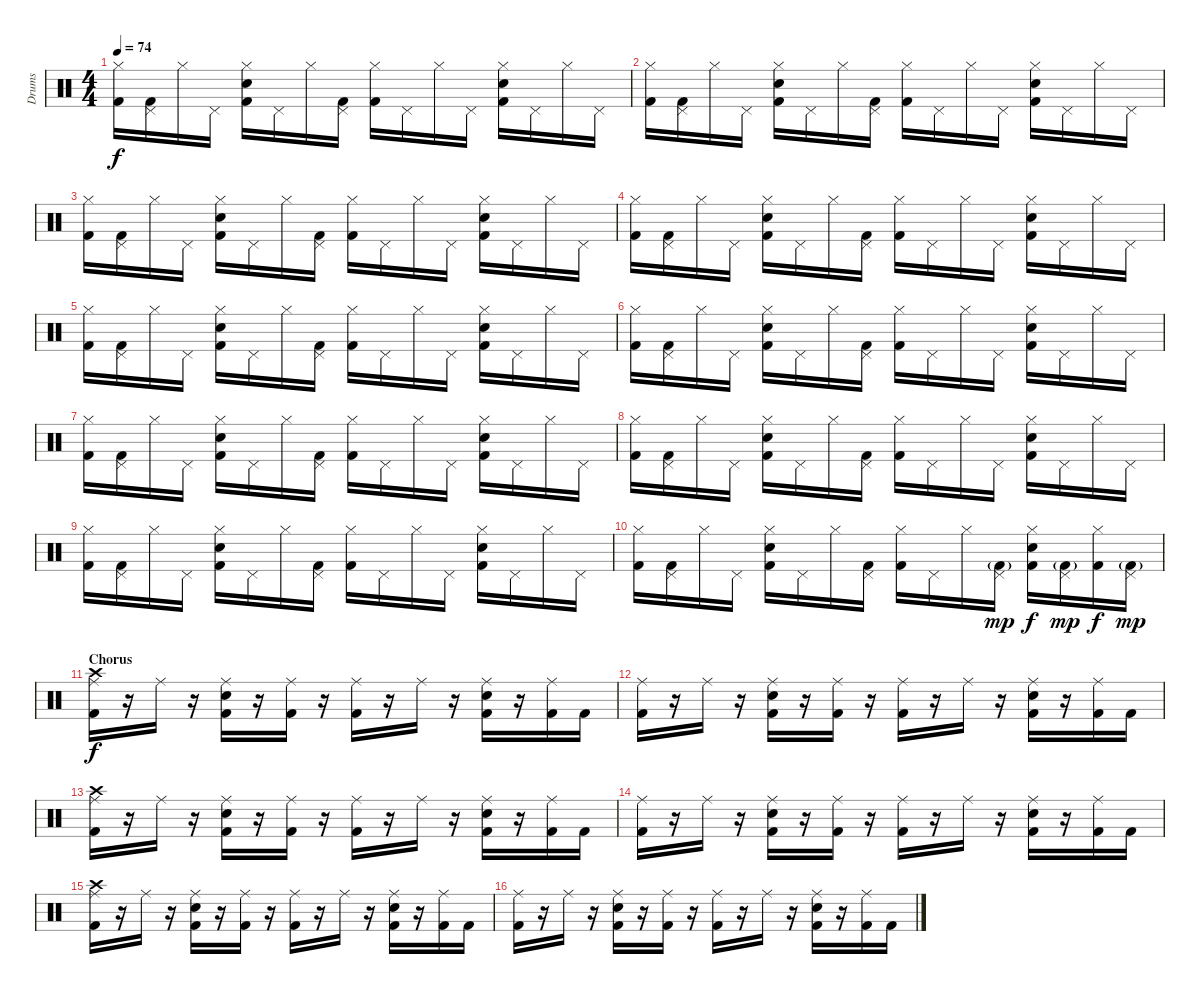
\track ("Drums" "Drums") {instrument percussion}
\staff {score}
\articulation defaults
\ts (4 4)
\tempo 74
\clef neutral
\ks c
("Hi-Hat (closed)" "Kick (hit) 2").16{dy f} ("Pedal Hi-Hat (hit)" "Kick (hit) 2").16 "Hi-Hat (closed)".16 "Pedal Hi-Hat (hit)".16 ("Hi-Hat (closed)" "Kick (hit) 2" "Snare (hit) 2").16 "Pedal Hi-Hat (hit)".16 "Hi-Hat (closed)".16 ("Pedal Hi-Hat (hit)" "Kick (hit) 2").16 ("Hi-Hat (closed)" "Kick (hit) 2").16 "Pedal Hi-Hat (hit)".16 "Hi-Hat (closed)".16 "Pedal Hi-Hat (hit)".16 ("Hi-Hat (closed)" "Kick (hit) 2" "Snare (hit) 2").16 "Pedal Hi-Hat (hit)".16 "Hi-Hat (closed)".16 "Pedal Hi-Hat (hit)".16 |
("Hi-Hat (closed)" "Kick (hit) 2").16 ("Pedal Hi-Hat (hit)" "Kick (hit) 2").16 "Hi-Hat (closed)".16 "Pedal Hi-Hat (hit)".16 ("Hi-Hat (closed)" "Kick (hit) 2" "Snare (hit) 2").16 "Pedal Hi-Hat (hit)".16 "Hi-Hat (closed)".16 ("Pedal Hi-Hat (hit)" "Kick (hit) 2").16 ("Hi-Hat (closed)" "Kick (hit) 2").16 "Pedal Hi-Hat (hit)".16 "Hi-Hat (closed)".16 "Pedal Hi-Hat (hit)".16 ("Hi-Hat (closed)" "Kick (hit) 2" "Snare (hit) 2").16 "Pedal Hi-Hat (hit)".16 "Hi-Hat (closed)".16 "Pedal Hi-Hat (hit)".16 |
("Hi-Hat (closed)" "Kick (hit) 2").16 ("Pedal Hi-Hat (hit)" "Kick (hit) 2").16 "Hi-Hat (closed)".16 "Pedal Hi-Hat (hit)".16 ("Hi-Hat (closed)" "Kick (hit) 2" "Snare (hit) 2").16 "Pedal Hi-Hat (hit)".16 "Hi-Hat (closed)".16 ("Pedal Hi-Hat (hit)" "Kick (hit) 2").16 ("Hi-Hat (closed)" "Kick (hit) 2").16 "Pedal Hi-Hat (hit)".16 "Hi-Hat (closed)".16 "Pedal Hi-Hat (hit)".16 ("Hi-Hat (closed)" "Kick (hit) 2" "Snare (hit) 2").16 "Pedal Hi-Hat (hit)".16 "Hi-Hat (closed)".16 "Pedal Hi-Hat (hit)".16 |
("Hi-Hat (closed)" "Kick (hit) 2").16 ("Pedal Hi-Hat (hit)" "Kick (hit) 2").16 "Hi-Hat (closed)".16 "Pedal Hi-Hat (hit)".16 ("Hi-Hat (closed)" "Kick (hit) 2" "Snare (hit) 2").16 "Pedal Hi-Hat (hit)".16 "Hi-Hat (closed)".16 ("Pedal Hi-Hat (hit)" "Kick (hit) 2").16 ("Hi-Hat (closed)" "Kick (hit) 2").16 "Pedal Hi-Hat (hit)".16 "Hi-Hat (closed)".16 "Pedal Hi-Hat (hit)".16 ("Hi-Hat (closed)" "Kick (hit) 2" "Snare (hit) 2").16 "Pedal Hi-Hat (hit)".16 "Hi-Hat (closed)".16 "Pedal Hi-Hat (hit)".16 |
("Hi-Hat (closed)" "Kick (hit) 2").16 ("Pedal Hi-Hat (hit)" "Kick (hit) 2").16 "Hi-Hat (closed)".16 "Pedal Hi-Hat (hit)".16 ("Hi-Hat (closed)" "Kick (hit) 2" "Snare (hit) 2").16 "Pedal Hi-Hat (hit)".16 "Hi-Hat (closed)".16 ("Pedal Hi-Hat (hit)" "Kick (hit) 2").16 ("Hi-Hat (closed)" "Kick (hit) 2").16 "Pedal Hi-Hat (hit)".16 "Hi-Hat (closed)".16 "Pedal Hi-Hat (hit)".16 ("Hi-Hat (closed)" "Kick (hit) 2" "Snare (hit) 2").16 "Pedal Hi-Hat (hit)".16 "Hi-Hat (closed)".16 "Pedal Hi-Hat (hit)".16 |
("Hi-Hat (closed)" "Kick (hit) 2").16 ("Pedal Hi-Hat (hit)" "Kick (hit) 2").16 "Hi-Hat (closed)".16 "Pedal Hi-Hat (hit)".16 ("Hi-Hat (closed)" "Kick (hit) 2" "Snare (hit) 2").16 "Pedal Hi-Hat (hit)".16 "Hi-Hat (closed)".16 ("Pedal Hi-Hat (hit)" "Kick (hit) 2").16 ("Hi-Hat (closed)" "Kick (hit) 2").16 "Pedal Hi-Hat (hit)".16 "Hi-Hat (closed)".16 "Pedal Hi-Hat (hit)".16 ("Hi-Hat (closed)" "Kick (hit) 2" "Snare (hit) 2").16 "Pedal Hi-Hat (hit)".16 "Hi-Hat (closed)".16 "Pedal Hi-Hat (hit)".16 |
("Hi-Hat (closed)" "Kick (hit) 2").16 ("Pedal Hi-Hat (hit)" "Kick (hit) 2").16 "Hi-Hat (closed)".16 "Pedal Hi-Hat (hit)".16 ("Hi-Hat (closed)" "Kick (hit) 2" "Snare (hit) 2").16 "Pedal Hi-Hat (hit)".16 "Hi-Hat (closed)".16 ("Pedal Hi-Hat (hit)" "Kick (hit) 2").16 ("Hi-Hat (closed)" "Kick (hit) 2").16 "Pedal Hi-Hat (hit)".16 "Hi-Hat (closed)".16 "Pedal Hi-Hat (hit)".16 ("Hi-Hat (closed)" "Kick (hit) 2" "Snare (hit) 2").16 "Pedal Hi-Hat (hit)".16 "Hi-Hat (closed)".16 "Pedal Hi-Hat (hit)".16 |
("Hi-Hat (closed)" "Kick (hit) 2").16 ("Pedal Hi-Hat (hit)" "Kick (hit) 2").16 "Hi-Hat (closed)".16 "Pedal Hi-Hat (hit)".16 ("Hi-Hat (closed)" "Kick (hit) 2" "Snare (hit) 2").16 "Pedal Hi-Hat (hit)".16 "Hi-Hat (closed)".16 ("Pedal Hi-Hat (hit)" "Kick (hit) 2").16 ("Hi-Hat (closed)" "Kick (hit) 2").16 "Pedal Hi-Hat (hit)".16 "Hi-Hat (closed)".16 "Pedal Hi-Hat (hit)".16 ("Hi-Hat (closed)" "Kick (hit) 2" "Snare (hit) 2").16 "Pedal Hi-Hat (hit)".16 "Hi-Hat (closed)".16 "Pedal Hi-Hat (hit)".16 |
("Hi-Hat (closed)" "Kick (hit) 2").16 ("Pedal Hi-Hat (hit)" "Kick (hit) 2").16 "Hi-Hat (closed)".16 "Pedal Hi-Hat (hit)".16 ("Hi-Hat (closed)" "Kick (hit) 2" "Snare (hit) 2").16 "Pedal Hi-Hat (hit)".16 "Hi-Hat (closed)".16 ("Pedal Hi-Hat (hit)" "Kick (hit) 2").16 ("Hi-Hat (closed)" "Kick (hit) 2").16 "Pedal Hi-Hat (hit)".16 "Hi-Hat (closed)".16 "Pedal Hi-Hat (hit)".16 ("Hi-Hat (closed)" "Kick (hit) 2" "Snare (hit) 2").16 "Pedal Hi-Hat (hit)".16 "Hi-Hat (closed)".16 "Pedal Hi-Hat (hit)".16 |
("Hi-Hat (closed)" "Kick (hit) 2").16 ("Pedal Hi-Hat (hit)" "Kick (hit) 2").16 "Hi-Hat (closed)".16 "Pedal Hi-Hat (hit)".16 ("Hi-Hat (closed)" "Kick (hit) 2" "Snare (hit) 2").16 "Pedal Hi-Hat (hit)".16 "Hi-Hat (closed)".16 ("Pedal Hi-Hat (hit)" "Kick (hit) 2").16 ("Hi-Hat (closed)" "Kick (hit) 2").16 "Pedal Hi-Hat (hit)".16 "Hi-Hat (closed)".16 ("Pedal Hi-Hat (hit)" "Kick (hit) 2"{g}).16{dy mp} ("Hi-Hat (closed)" "Kick (hit) 2" "Snare (hit) 2").16{dy f} ("Pedal Hi-Hat (hit)" "Kick (hit) 2"{g}).16{dy mp} ("Hi-Hat (closed)" "Kick (hit) 2").16{dy f} ("Pedal Hi-Hat (hit)" "Kick (hit) 2"{g}).16{dy mp} |
\section ("" "Chorus")
("Crash high (hit)" "Ride (middle)" "Kick (hit) 2").16{dy f} r.16 "Ride (middle)".16 r.16 ("Ride (middle)" "Kick (hit) 2" "Snare (hit) 2").16 r.16 ("Ride (middle)" "Kick (hit) 2").16 r.16 ("Ride (middle)" "Kick (hit) 2").16 r.16 "Ride (middle)".16 r.16 ("Ride (middle)" "Kick (hit) 2" "Snare (hit) 2").16 r.16 ("Ride (middle)" "Kick (hit) 2").16 "Kick (hit) 2".16 |
("Ride (middle)" "Kick (hit) 2").16 r.16 "Ride (middle)".16 r.16 ("Ride (middle)" "Kick (hit) 2" "Snare (hit) 2").16 r.16 ("Ride (middle)" "Kick (hit) 2").16 r.16 ("Ride (middle)" "Kick (hit) 2").16 r.16 "Ride (middle)".16 r.16 ("Ride (middle)" "Kick (hit) 2" "Snare (hit) 2").16 r.16 ("Ride (middle)" "Kick (hit) 2").16 "Kick (hit) 2".16 |
("Crash high (hit)" "Ride (middle)" "Kick (hit) 2").16 r.16 "Ride (middle)".16 r.16 ("Ride (middle)" "Kick (hit) 2" "Snare (hit) 2").16 r.16 ("Ride (middle)" "Kick (hit) 2").16 r.16 ("Ride (middle)" "Kick (hit) 2").16 r.16 "Ride (middle)".16 r.16 ("Ride (middle)" "Kick (hit) 2" "Snare (hit) 2").16 r.16 ("Ride (middle)" "Kick (hit) 2").16 "Kick (hit) 2".16 |
("Ride (middle)" "Kick (hit) 2").16 r.16 "Ride (middle)".16 r.16 ("Ride (middle)" "Kick (hit) 2" "Snare (hit) 2").16 r.16 ("Ride (middle)" "Kick (hit) 2").16 r.16 ("Ride (middle)" "Kick (hit) 2").16 r.16 "Ride (middle)".16 r.16 ("Ride (middle)" "Kick (hit) 2" "Snare (hit) 2").16 r.16 ("Ride (middle)" "Kick (hit) 2").16 "Kick (hit) 2".16 |
("Crash high (hit)" "Ride (middle)" "Kick (hit) 2").16 r.16 "Ride (middle)".16 r.16 ("Ride (middle)" "Kick (hit) 2" "Snare (hit) 2").16 r.16 ("Ride (middle)" "Kick (hit) 2").16 r.16 ("Ride (middle)" "Kick (hit) 2").16 r.16 "Ride (middle)".16 r.16 ("Ride (middle)" "Kick (hit) 2" "Snare (hit) 2").16 r.16 ("Ride (middle)" "Kick (hit) 2").16 "Kick (hit) 2".16 |
("Ride (middle)" "Kick (hit) 2").16 r.16 "Ride (middle)".16 r.16 ("Ride (middle)" "Kick (hit) 2" "Snare (hit) 2").16 r.16 ("Ride (middle)" "Kick (hit) 2").16 r.16 ("Ride (middle)" "Kick (hit) 2").16 r.16 "Ride (middle)".16 r.16 ("Ride (middle)" "Kick (hit) 2" "Snare (hit) 2").16 r.16 ("Ride (middle)" "Kick (hit) 2").16 "Kick (hit) 2".16
